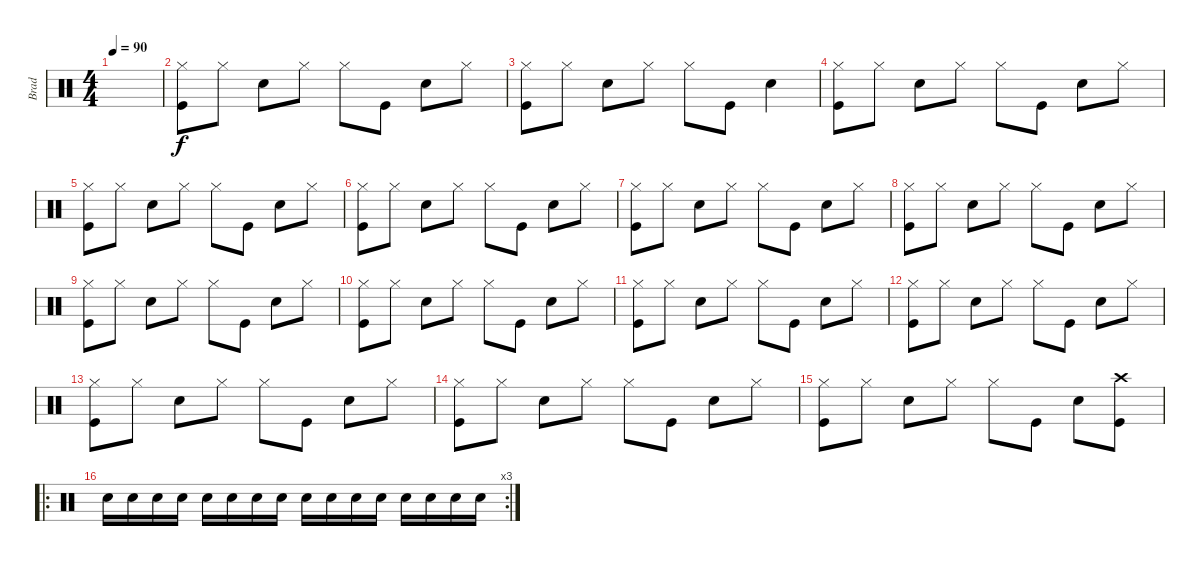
\track ("Brad" "Brad") {instrument percussion}
\staff {score}
\articulation defaults
\ts (4 4)
\tempo 90
\clef neutral
\ks c
|
("Hi-Hat (closed)" "Kick (hit)").8 "Hi-Hat (closed)".8 "Electric Snare (hit)".8 "Hi-Hat (closed)".8 "Hi-Hat (closed)".8 "Kick (hit)".8 "Electric Snare (hit)".8 "Hi-Hat (closed)".8 |
("Hi-Hat (closed)" "Kick (hit)").8 "Hi-Hat (closed)".8 "Electric Snare (hit)".8 "Hi-Hat (closed)".8 "Hi-Hat (closed)".8 "Kick (hit)".8 "Electric Snare (hit)".4 |
("Hi-Hat (closed)" "Kick (hit)").8 "Hi-Hat (closed)".8 "Electric Snare (hit)".8 "Hi-Hat (closed)".8 "Hi-Hat (closed)".8 "Kick (hit)".8 "Electric Snare (hit)".8 "Hi-Hat (closed)".8 |
("Hi-Hat (closed)" "Kick (hit)").8 "Hi-Hat (closed)".8 "Electric Snare (hit)".8 "Hi-Hat (closed)".8 "Hi-Hat (closed)".8 "Kick (hit)".8 "Electric Snare (hit)".8 "Hi-Hat (closed)".8 |
("Hi-Hat (closed)" "Kick (hit)").8 "Hi-Hat (closed)".8 "Electric Snare (hit)".8 "Hi-Hat (closed)".8 "Hi-Hat (closed)".8 "Kick (hit)".8 "Electric Snare (hit)".8 "Hi-Hat (closed)".8 |
("Hi-Hat (closed)" "Kick (hit)").8 "Hi-Hat (closed)".8 "Electric Snare (hit)".8 "Hi-Hat (closed)".8 "Hi-Hat (closed)".8 "Kick (hit)".8 "Electric Snare (hit)".8 "Hi-Hat (closed)".8 |
("Hi-Hat (closed)" "Kick (hit)").8 "Hi-Hat (closed)".8 "Electric Snare (hit)".8 "Hi-Hat (closed)".8 "Hi-Hat (closed)".8 "Kick (hit)".8 "Electric Snare (hit)".8 "Hi-Hat (closed)".8 |
("Hi-Hat (closed)" "Kick (hit)").8 "Hi-Hat (closed)".8 "Electric Snare (hit)".8 "Hi-Hat (closed)".8 "Hi-Hat (closed)".8 "Kick (hit)".8 "Electric Snare (hit)".8 "Hi-Hat (closed)".8 |
("Hi-Hat (closed)" "Kick (hit)").8 "Hi-Hat (closed)".8 "Electric Snare (hit)".8 "Hi-Hat (closed)".8 "Hi-Hat (closed)".8 "Kick (hit)".8 "Electric Snare (hit)".8 "Hi-Hat (closed)".8 |
("Hi-Hat (closed)" "Kick (hit)").8 "Hi-Hat (closed)".8 "Electric Snare (hit)".8 "Hi-Hat (closed)".8 "Hi-Hat (closed)".8 "Kick (hit)".8 "Electric Snare (hit)".8 "Hi-Hat (closed)".8 |
("Hi-Hat (closed)" "Kick (hit)").8 "Hi-Hat (closed)".8 "Electric Snare (hit)".8 "Hi-Hat (closed)".8 "Hi-Hat (closed)".8 "Kick (hit)".8 "Electric Snare (hit)".8 "Hi-Hat (closed)".8 |
("Hi-Hat (closed)" "Kick (hit)").8 "Hi-Hat (closed)".8 "Electric Snare (hit)".8 "Hi-Hat (closed)".8 "Hi-Hat (closed)".8 "Kick (hit)".8 "Electric Snare (hit)".8 "Hi-Hat (closed)".8 |
("Hi-Hat (closed)" "Kick (hit)").8 "Hi-Hat (closed)".8 "Electric Snare (hit)".8 "Hi-Hat (closed)".8 "Hi-Hat (closed)".8 "Kick (hit)".8 "Electric Snare (hit)".8 "Hi-Hat (closed)".8 |
("Hi-Hat (closed)" "Kick (hit)").8 "Hi-Hat (closed)".8 "Electric Snare (hit)".8 "Hi-Hat (closed)".8 "Hi-Hat (closed)".8 "Kick (hit)".8 "Electric Snare (hit)".8 ("Crash high (hit)" "Kick (hit)").8 |
\ro
\rc 3 "Electric Snare (hit)".16{volume 3} "Electric Snare (hit)".16 "Electric Snare (hit)".16 "Electric Snare (hit)".16 "Electric Snare (hit)".16 "Electric Snare (hit)".16 "Electric Snare (hit)".16 "Electric Snare (hit)".16 "Electric Snare (hit)".16 "Electric Snare (hit)".16 "Electric Snare (hit)".16 "Electric Snare (hit)".16 "Electric Snare (hit)".16 "Electric Snare (hit)".16 "Electric Snare (hit)".16 "Electric Snare (hit)".16
